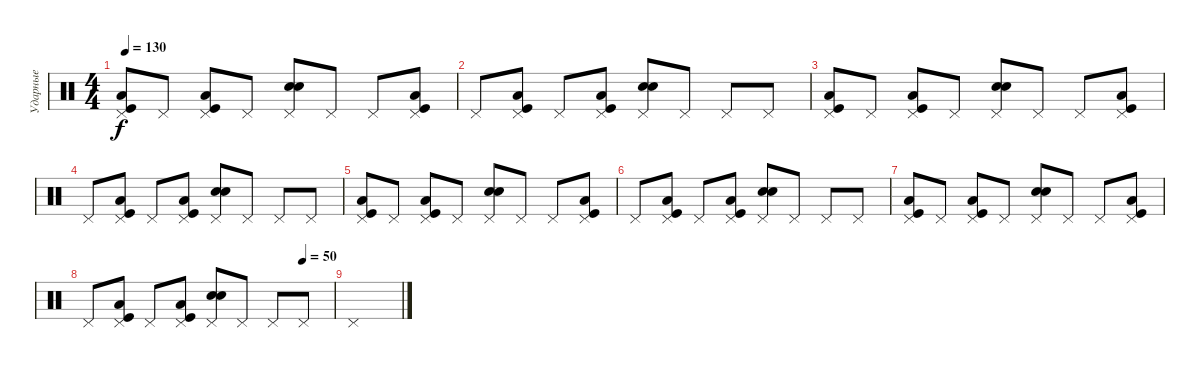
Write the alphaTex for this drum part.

\track ("Ударные" "Ударные") {instrument percussion}
\staff {score}
\articulation defaults
\ts (4 4)
\tempo 130
\clef neutral
\ks c
("Pedal Hi-Hat (hit)" "Low Tom (hit)" "Kick (hit)").8{dy f} "Pedal Hi-Hat (hit)".8 ("Pedal Hi-Hat (hit)" "Low Tom (hit)" "Kick (hit)").8 "Pedal Hi-Hat (hit)".8 ("Pedal Hi-Hat (hit)" "Electric Snare (hit)" "Snare (hit) 2").8 "Pedal Hi-Hat (hit)".8 "Pedal Hi-Hat (hit)".8 ("Pedal Hi-Hat (hit)" "Low Tom (hit)" "Kick (hit)").8 |
"Pedal Hi-Hat (hit)".8 ("Pedal Hi-Hat (hit)" "Low Tom (hit)" "Kick (hit)").8 "Pedal Hi-Hat (hit)".8 ("Pedal Hi-Hat (hit)" "Low Tom (hit)" "Kick (hit)").8 ("Pedal Hi-Hat (hit)" "Electric Snare (hit)" "Snare (hit) 2").8 "Pedal Hi-Hat (hit)".8 "Pedal Hi-Hat (hit)".8 "Pedal Hi-Hat (hit)".8 |
("Pedal Hi-Hat (hit)" "Low Tom (hit)" "Kick (hit)").8 "Pedal Hi-Hat (hit)".8 ("Pedal Hi-Hat (hit)" "Low Tom (hit)" "Kick (hit)").8 "Pedal Hi-Hat (hit)".8 ("Pedal Hi-Hat (hit)" "Electric Snare (hit)" "Snare (hit) 2").8 "Pedal Hi-Hat (hit)".8 "Pedal Hi-Hat (hit)".8 ("Pedal Hi-Hat (hit)" "Low Tom (hit)" "Kick (hit)").8 |
"Pedal Hi-Hat (hit)".8 ("Pedal Hi-Hat (hit)" "Low Tom (hit)" "Kick (hit)").8 "Pedal Hi-Hat (hit)".8 ("Pedal Hi-Hat (hit)" "Low Tom (hit)" "Kick (hit)").8 ("Pedal Hi-Hat (hit)" "Electric Snare (hit)" "Snare (hit) 2").8 "Pedal Hi-Hat (hit)".8 "Pedal Hi-Hat (hit)".8 "Pedal Hi-Hat (hit)".8 |
("Pedal Hi-Hat (hit)" "Low Tom (hit)" "Kick (hit)").8 "Pedal Hi-Hat (hit)".8 ("Pedal Hi-Hat (hit)" "Low Tom (hit)" "Kick (hit)").8 "Pedal Hi-Hat (hit)".8 ("Pedal Hi-Hat (hit)" "Electric Snare (hit)" "Snare (hit) 2").8 "Pedal Hi-Hat (hit)".8 "Pedal Hi-Hat (hit)".8 ("Pedal Hi-Hat (hit)" "Low Tom (hit)" "Kick (hit)").8 |
"Pedal Hi-Hat (hit)".8 ("Pedal Hi-Hat (hit)" "Low Tom (hit)" "Kick (hit)").8 "Pedal Hi-Hat (hit)".8 ("Pedal Hi-Hat (hit)" "Low Tom (hit)" "Kick (hit)").8 ("Pedal Hi-Hat (hit)" "Electric Snare (hit)" "Snare (hit) 2").8 "Pedal Hi-Hat (hit)".8 "Pedal Hi-Hat (hit)".8 "Pedal Hi-Hat (hit)".8 |
("Pedal Hi-Hat (hit)" "Low Tom (hit)" "Kick (hit)").8 "Pedal Hi-Hat (hit)".8 ("Pedal Hi-Hat (hit)" "Low Tom (hit)" "Kick (hit)").8 "Pedal Hi-Hat (hit)".8 ("Pedal Hi-Hat (hit)" "Electric Snare (hit)" "Snare (hit) 2").8 "Pedal Hi-Hat (hit)".8 "Pedal Hi-Hat (hit)".8 ("Pedal Hi-Hat (hit)" "Low Tom (hit)" "Kick (hit)").8 |
\tempo (50 0.875)
"Pedal Hi-Hat (hit)".8 ("Pedal Hi-Hat (hit)" "Low Tom (hit)" "Kick (hit)").8 "Pedal Hi-Hat (hit)".8 ("Pedal Hi-Hat (hit)" "Low Tom (hit)" "Kick (hit)").8 ("Pedal Hi-Hat (hit)" "Electric Snare (hit)" "Snare (hit) 2").8 "Pedal Hi-Hat (hit)".8 "Pedal Hi-Hat (hit)".8 "Pedal Hi-Hat (hit)".8 |
"Pedal Hi-Hat (hit)".1
